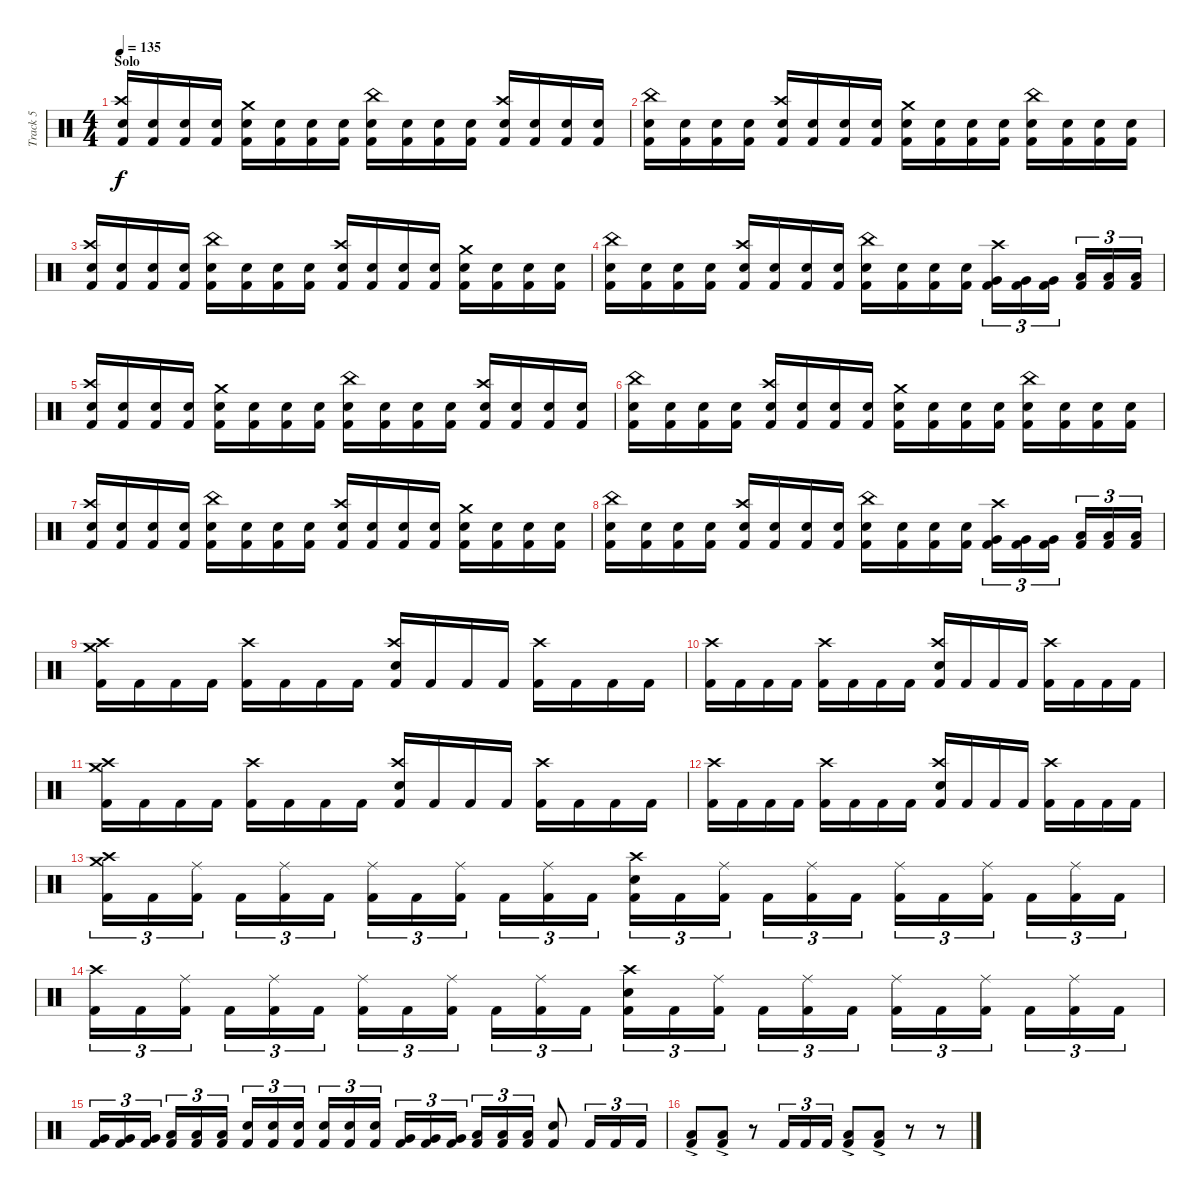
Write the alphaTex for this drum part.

\track ("Track 5" "Track 5") {instrument percussion}
\staff {score}
\articulation defaults
\ts (4 4)
\section ("" "Solo")
\tempo 135
\clef neutral
\ks c
("Electric Snare (hit)" "Crash high (hit)" "Kick (hit) 2").16{dy f} ("Electric Snare (hit)" "Kick (hit) 2").16 ("Electric Snare (hit)" "Kick (hit) 2").16 ("Electric Snare (hit)" "Kick (hit) 2").16 ("Electric Snare (hit)" "Crash medium (hit)" "Kick (hit) 2").16 ("Electric Snare (hit)" "Kick (hit) 2").16 ("Electric Snare (hit)" "Kick (hit) 2").16 ("Electric Snare (hit)" "Kick (hit) 2").16 ("Electric Snare (hit)" "China (hit)" "Kick (hit) 2").16 ("Electric Snare (hit)" "Kick (hit) 2").16 ("Electric Snare (hit)" "Kick (hit) 2").16 ("Electric Snare (hit)" "Kick (hit) 2").16 ("Electric Snare (hit)" "Crash high (hit)" "Kick (hit) 2").16 ("Electric Snare (hit)" "Kick (hit) 2").16 ("Electric Snare (hit)" "Kick (hit) 2").16 ("Electric Snare (hit)" "Kick (hit) 2").16 |
("Electric Snare (hit)" "China (hit)" "Kick (hit) 2").16 ("Electric Snare (hit)" "Kick (hit) 2").16 ("Electric Snare (hit)" "Kick (hit) 2").16 ("Electric Snare (hit)" "Kick (hit) 2").16 ("Electric Snare (hit)" "Crash high (hit)" "Kick (hit) 2").16 ("Electric Snare (hit)" "Kick (hit) 2").16 ("Electric Snare (hit)" "Kick (hit) 2").16 ("Electric Snare (hit)" "Kick (hit) 2").16 ("Electric Snare (hit)" "Crash medium (hit)" "Kick (hit) 2").16 ("Electric Snare (hit)" "Kick (hit) 2").16 ("Electric Snare (hit)" "Kick (hit) 2").16 ("Electric Snare (hit)" "Kick (hit) 2").16 ("Electric Snare (hit)" "China (hit)" "Kick (hit) 2").16 ("Electric Snare (hit)" "Kick (hit) 2").16 ("Electric Snare (hit)" "Kick (hit) 2").16 ("Electric Snare (hit)" "Kick (hit) 2").16 |
("Electric Snare (hit)" "Crash high (hit)" "Kick (hit) 2").16 ("Electric Snare (hit)" "Kick (hit) 2").16 ("Electric Snare (hit)" "Kick (hit) 2").16 ("Electric Snare (hit)" "Kick (hit) 2").16 ("Electric Snare (hit)" "China (hit)" "Kick (hit) 2").16 ("Electric Snare (hit)" "Kick (hit) 2").16 ("Electric Snare (hit)" "Kick (hit) 2").16 ("Electric Snare (hit)" "Kick (hit) 2").16 ("Electric Snare (hit)" "Crash high (hit)" "Kick (hit) 2").16 ("Electric Snare (hit)" "Kick (hit) 2").16 ("Electric Snare (hit)" "Kick (hit) 2").16 ("Electric Snare (hit)" "Kick (hit) 2").16 ("Electric Snare (hit)" "Crash medium (hit)" "Kick (hit) 2").16 ("Electric Snare (hit)" "Kick (hit) 2").16 ("Electric Snare (hit)" "Kick (hit) 2").16 ("Electric Snare (hit)" "Kick (hit) 2").16 |
("Electric Snare (hit)" "China (hit)" "Kick (hit) 2").16 ("Electric Snare (hit)" "Kick (hit) 2").16 ("Electric Snare (hit)" "Kick (hit) 2").16 ("Electric Snare (hit)" "Kick (hit) 2").16 ("Electric Snare (hit)" "Crash high (hit)" "Kick (hit) 2").16 ("Electric Snare (hit)" "Kick (hit) 2").16 ("Electric Snare (hit)" "Kick (hit) 2").16 ("Electric Snare (hit)" "Kick (hit) 2").16 ("Electric Snare (hit)" "China (hit)" "Kick (hit) 2").16 ("Electric Snare (hit)" "Kick (hit) 2").16 ("Electric Snare (hit)" "Kick (hit) 2").16 ("Electric Snare (hit)" "Kick (hit) 2").16 ("Very Low Tom (hit)" "Crash high (hit)" "Kick (hit) 2").16{tu (3 2)} ("Very Low Tom (hit)" "Kick (hit) 2").16{tu (3 2)} ("Very Low Tom (hit)" "Kick (hit) 2").16{tu (3 2)} ("Low Floor Tom (hit)" "Kick (hit) 2").16{tu (3 2)} ("Low Floor Tom (hit)" "Kick (hit) 2").16{tu (3 2)} ("Low Floor Tom (hit)" "Kick (hit) 2").16{tu (3 2)} |
("Electric Snare (hit)" "Crash high (hit)" "Kick (hit) 2").16 ("Electric Snare (hit)" "Kick (hit) 2").16 ("Electric Snare (hit)" "Kick (hit) 2").16 ("Electric Snare (hit)" "Kick (hit) 2").16 ("Electric Snare (hit)" "Crash medium (hit)" "Kick (hit) 2").16 ("Electric Snare (hit)" "Kick (hit) 2").16 ("Electric Snare (hit)" "Kick (hit) 2").16 ("Electric Snare (hit)" "Kick (hit) 2").16 ("Electric Snare (hit)" "China (hit)" "Kick (hit) 2").16 ("Electric Snare (hit)" "Kick (hit) 2").16 ("Electric Snare (hit)" "Kick (hit) 2").16 ("Electric Snare (hit)" "Kick (hit) 2").16 ("Electric Snare (hit)" "Crash high (hit)" "Kick (hit) 2").16 ("Electric Snare (hit)" "Kick (hit) 2").16 ("Electric Snare (hit)" "Kick (hit) 2").16 ("Electric Snare (hit)" "Kick (hit) 2").16 |
("Electric Snare (hit)" "China (hit)" "Kick (hit) 2").16 ("Electric Snare (hit)" "Kick (hit) 2").16 ("Electric Snare (hit)" "Kick (hit) 2").16 ("Electric Snare (hit)" "Kick (hit) 2").16 ("Electric Snare (hit)" "Crash high (hit)" "Kick (hit) 2").16 ("Electric Snare (hit)" "Kick (hit) 2").16 ("Electric Snare (hit)" "Kick (hit) 2").16 ("Electric Snare (hit)" "Kick (hit) 2").16 ("Electric Snare (hit)" "Crash medium (hit)" "Kick (hit) 2").16 ("Electric Snare (hit)" "Kick (hit) 2").16 ("Electric Snare (hit)" "Kick (hit) 2").16 ("Electric Snare (hit)" "Kick (hit) 2").16 ("Electric Snare (hit)" "China (hit)" "Kick (hit) 2").16 ("Electric Snare (hit)" "Kick (hit) 2").16 ("Electric Snare (hit)" "Kick (hit) 2").16 ("Electric Snare (hit)" "Kick (hit) 2").16 |
("Electric Snare (hit)" "Crash high (hit)" "Kick (hit) 2").16 ("Electric Snare (hit)" "Kick (hit) 2").16 ("Electric Snare (hit)" "Kick (hit) 2").16 ("Electric Snare (hit)" "Kick (hit) 2").16 ("Electric Snare (hit)" "China (hit)" "Kick (hit) 2").16 ("Electric Snare (hit)" "Kick (hit) 2").16 ("Electric Snare (hit)" "Kick (hit) 2").16 ("Electric Snare (hit)" "Kick (hit) 2").16 ("Electric Snare (hit)" "Crash high (hit)" "Kick (hit) 2").16 ("Electric Snare (hit)" "Kick (hit) 2").16 ("Electric Snare (hit)" "Kick (hit) 2").16 ("Electric Snare (hit)" "Kick (hit) 2").16 ("Electric Snare (hit)" "Crash medium (hit)" "Kick (hit) 2").16 ("Electric Snare (hit)" "Kick (hit) 2").16 ("Electric Snare (hit)" "Kick (hit) 2").16 ("Electric Snare (hit)" "Kick (hit) 2").16 |
("Electric Snare (hit)" "China (hit)" "Kick (hit) 2").16 ("Electric Snare (hit)" "Kick (hit) 2").16 ("Electric Snare (hit)" "Kick (hit) 2").16 ("Electric Snare (hit)" "Kick (hit) 2").16 ("Electric Snare (hit)" "Crash high (hit)" "Kick (hit) 2").16 ("Electric Snare (hit)" "Kick (hit) 2").16 ("Electric Snare (hit)" "Kick (hit) 2").16 ("Electric Snare (hit)" "Kick (hit) 2").16 ("Electric Snare (hit)" "China (hit)" "Kick (hit) 2").16 ("Electric Snare (hit)" "Kick (hit) 2").16 ("Electric Snare (hit)" "Kick (hit) 2").16 ("Electric Snare (hit)" "Kick (hit) 2").16 ("Very Low Tom (hit)" "Crash high (hit)" "Kick (hit) 2").16{tu (3 2)} ("Very Low Tom (hit)" "Kick (hit) 2").16{tu (3 2)} ("Very Low Tom (hit)" "Kick (hit) 2").16{tu (3 2)} ("Low Floor Tom (hit)" "Kick (hit) 2").16{tu (3 2)} ("Low Floor Tom (hit)" "Kick (hit) 2").16{tu (3 2)} ("Low Floor Tom (hit)" "Kick (hit) 2").16{tu (3 2)} |
("Crash medium (hit)" "Crash high (hit)" "Kick (hit) 2").16 "Kick (hit) 2".16 "Kick (hit) 2".16 "Kick (hit) 2".16 ("Crash high (hit)" "Kick (hit) 2").16 "Kick (hit) 2".16 "Kick (hit) 2".16 "Kick (hit) 2".16 ("Electric Snare (hit)" "Crash high (hit)" "Kick (hit) 2").16 "Kick (hit) 2".16 "Kick (hit) 2".16 "Kick (hit) 2".16 ("Crash high (hit)" "Kick (hit) 2").16 "Kick (hit) 2".16 "Kick (hit) 2".16 "Kick (hit) 2".16 |
("Crash high (hit)" "Kick (hit) 2").16 "Kick (hit) 2".16 "Kick (hit) 2".16 "Kick (hit) 2".16 ("Crash high (hit)" "Kick (hit) 2").16 "Kick (hit) 2".16 "Kick (hit) 2".16 "Kick (hit) 2".16 ("Electric Snare (hit)" "Crash high (hit)" "Kick (hit) 2").16 "Kick (hit) 2".16 "Kick (hit) 2".16 "Kick (hit) 2".16 ("Crash high (hit)" "Kick (hit) 2").16 "Kick (hit) 2".16 "Kick (hit) 2".16 "Kick (hit) 2".16 |
("Crash medium (hit)" "Crash high (hit)" "Kick (hit) 2").16 "Kick (hit) 2".16 "Kick (hit) 2".16 "Kick (hit) 2".16 ("Crash high (hit)" "Kick (hit) 2").16 "Kick (hit) 2".16 "Kick (hit) 2".16 "Kick (hit) 2".16 ("Electric Snare (hit)" "Crash high (hit)" "Kick (hit) 2").16 "Kick (hit) 2".16 "Kick (hit) 2".16 "Kick (hit) 2".16 ("Crash high (hit)" "Kick (hit) 2").16 "Kick (hit) 2".16 "Kick (hit) 2".16 "Kick (hit) 2".16 |
("Crash high (hit)" "Kick (hit) 2").16 "Kick (hit) 2".16 "Kick (hit) 2".16 "Kick (hit) 2".16 ("Crash high (hit)" "Kick (hit) 2").16 "Kick (hit) 2".16 "Kick (hit) 2".16 "Kick (hit) 2".16 ("Electric Snare (hit)" "Crash high (hit)" "Kick (hit) 2").16 "Kick (hit) 2".16 "Kick (hit) 2".16 "Kick (hit) 2".16 ("Crash high (hit)" "Kick (hit) 2").16 "Kick (hit) 2".16 "Kick (hit) 2".16 "Kick (hit) 2".16 |
("Crash medium (hit)" "Crash high (hit)" "Kick (hit) 2").16{tu (3 2)} "Kick (hit) 2".16{tu (3 2)} ("Ride (middle)" "Kick (hit) 2").16{tu (3 2)} "Kick (hit) 2".16{tu (3 2)} ("Ride (middle)" "Kick (hit) 2").16{tu (3 2)} "Kick (hit) 2".16{tu (3 2)} ("Ride (middle)" "Kick (hit) 2").16{tu (3 2)} "Kick (hit) 2".16{tu (3 2)} ("Ride (middle)" "Kick (hit) 2").16{tu (3 2)} "Kick (hit) 2".16{tu (3 2)} ("Ride (middle)" "Kick (hit) 2").16{tu (3 2)} "Kick (hit) 2".16{tu (3 2)} ("Electric Snare (hit)" "Crash high (hit)" "Kick (hit) 2").16{tu (3 2)} "Kick (hit) 2".16{tu (3 2)} ("Ride (middle)" "Kick (hit) 2").16{tu (3 2)} "Kick (hit) 2".16{tu (3 2)} ("Ride (middle)" "Kick (hit) 2").16{tu (3 2)} "Kick (hit) 2".16{tu (3 2)} ("Ride (middle)" "Kick (hit) 2").16{tu (3 2)} "Kick (hit) 2".16{tu (3 2)} ("Ride (middle)" "Kick (hit) 2").16{tu (3 2)} "Kick (hit) 2".16{tu (3 2)} ("Ride (middle)" "Kick (hit) 2").16{tu (3 2)} "Kick (hit) 2".16{tu (3 2)} |
("Crash high (hit)" "Kick (hit) 2").16{tu (3 2)} "Kick (hit) 2".16{tu (3 2)} ("Ride (middle)" "Kick (hit) 2").16{tu (3 2)} "Kick (hit) 2".16{tu (3 2)} ("Ride (middle)" "Kick (hit) 2").16{tu (3 2)} "Kick (hit) 2".16{tu (3 2)} ("Ride (middle)" "Kick (hit) 2").16{tu (3 2)} "Kick (hit) 2".16{tu (3 2)} ("Ride (middle)" "Kick (hit) 2").16{tu (3 2)} "Kick (hit) 2".16{tu (3 2)} ("Ride (middle)" "Kick (hit) 2").16{tu (3 2)} "Kick (hit) 2".16{tu (3 2)} ("Electric Snare (hit)" "Crash high (hit)" "Kick (hit) 2").16{tu (3 2)} "Kick (hit) 2".16{tu (3 2)} ("Ride (middle)" "Kick (hit) 2").16{tu (3 2)} "Kick (hit) 2".16{tu (3 2)} ("Ride (middle)" "Kick (hit) 2").16{tu (3 2)} "Kick (hit) 2".16{tu (3 2)} ("Ride (middle)" "Kick (hit) 2").16{tu (3 2)} "Kick (hit) 2".16{tu (3 2)} ("Ride (middle)" "Kick (hit) 2").16{tu (3 2)} "Kick (hit) 2".16{tu (3 2)} ("Ride (middle)" "Kick (hit) 2").16{tu (3 2)} "Kick (hit) 2".16{tu (3 2)} |
("Very Low Tom (hit)" "Kick (hit) 2").16{tu (3 2)} ("Very Low Tom (hit)" "Kick (hit) 2").16{tu (3 2)} ("Very Low Tom (hit)" "Kick (hit) 2").16{tu (3 2)} ("Low Floor Tom (hit)" "Kick (hit) 2").16{tu (3 2)} ("Low Floor Tom (hit)" "Kick (hit) 2").16{tu (3 2)} ("Low Floor Tom (hit)" "Kick (hit) 2").16{tu (3 2)} ("Electric Snare (hit)" "Kick (hit) 2").16{tu (3 2)} ("Electric Snare (hit)" "Kick (hit) 2").16{tu (3 2)} ("Electric Snare (hit)" "Kick (hit) 2").16{tu (3 2)} ("Electric Snare (hit)" "Kick (hit) 2").16{tu (3 2)} ("Electric Snare (hit)" "Kick (hit) 2").16{tu (3 2)} ("Electric Snare (hit)" "Kick (hit) 2").16{tu (3 2)} ("Very Low Tom (hit)" "Kick (hit) 2").16{tu (3 2)} ("Very Low Tom (hit)" "Kick (hit) 2").16{tu (3 2)} ("Very Low Tom (hit)" "Kick (hit) 2").16{tu (3 2)} ("Low Floor Tom (hit)" "Kick (hit) 2").16{tu (3 2)} ("Low Floor Tom (hit)" "Kick (hit) 2").16{tu (3 2)} ("Low Floor Tom (hit)" "Kick (hit) 2").16{tu (3 2)} ("Electric Snare (hit)" "Kick (hit) 2").8 "Kick (hit) 2".16{tu (3 2)} "Kick (hit) 2".16{tu (3 2)} "Kick (hit) 2".16{tu (3 2)} |
("Low Floor Tom (hit)"{ac} "Kick (hit) 2").8 ("Low Floor Tom (hit)"{ac} "Kick (hit) 2").8 r.8 "Kick (hit) 2".16{tu (3 2)} "Kick (hit) 2".16{tu (3 2)} "Kick (hit) 2".16{tu (3 2)} ("Low Floor Tom (hit)"{ac} "Kick (hit) 2").8 ("Low Floor Tom (hit)"{ac} "Kick (hit) 2").8 r.8 r.8
